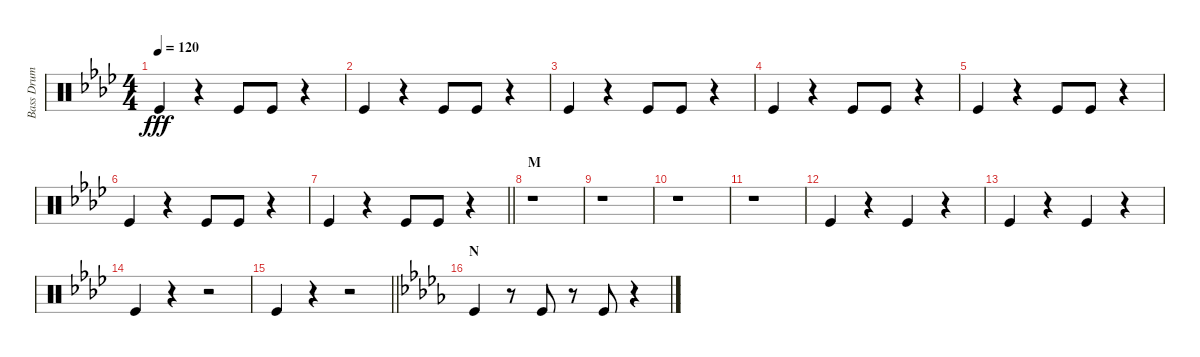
\track ("Bass Drum" "Bass Drum") {instrument percussion}
\staff {score}
\articulation defaults
\ts (4 4)
\tempo 120
\clef neutral
\ks ab "Kick (hit)".4{dy fff}
r.4 "Kick (hit)".8 "Kick (hit)".8 r.4 |
"Kick (hit)".4 r.4 "Kick (hit)".8 "Kick (hit)".8 r.4 |
"Kick (hit)".4 r.4 "Kick (hit)".8 "Kick (hit)".8 r.4 |
"Kick (hit)".4 r.4 "Kick (hit)".8 "Kick (hit)".8 r.4 |
"Kick (hit)".4 r.4 "Kick (hit)".8 "Kick (hit)".8 r.4 |
"Kick (hit)".4 r.4 "Kick (hit)".8 "Kick (hit)".8 r.4 |
\barLineRight lightlight "Kick (hit)".4
r.4 "Kick (hit)".8 "Kick (hit)".8 r.4 |
\section ("" "M")
r.1 |
r.1 |
r.1 |
r.1 |
"Kick (hit)".4 r.4 "Kick (hit)".4 r.4 |
"Kick (hit)".4 r.4 "Kick (hit)".4 r.4 |
"Kick (hit)".4 r.4 r.2 |
\barLineRight lightlight "Kick (hit)".4
r.4 r.2 |
\section ("" "N")
\ks db "Kick (hit)".4
r.8 "Kick (hit)".8 r.8 "Kick (hit)".8 r.4
